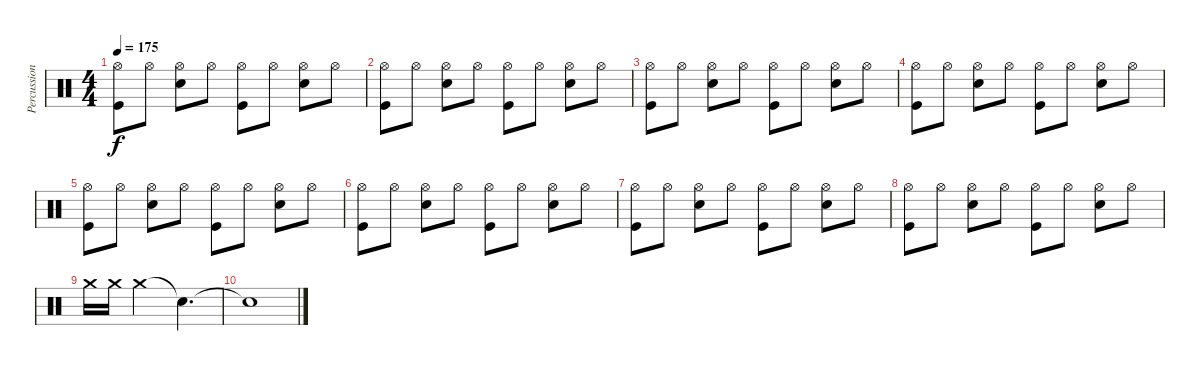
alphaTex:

\track ("Percussion" "Percussion") {instrument percussion}
\staff {score}
\articulation defaults
\ts (4 4)
\tempo 175
\clef neutral
\ks c
("Hi-Hat (open)" "Kick (hit)").8{dy f} "Hi-Hat (open)".8 ("Hi-Hat (open)" "Snare (hit) 2").8 "Hi-Hat (open)".8 ("Hi-Hat (open)" "Kick (hit)").8 "Hi-Hat (open)".8 ("Hi-Hat (open)" "Snare (hit) 2").8 "Hi-Hat (open)".8 |
("Hi-Hat (open)" "Kick (hit)").8 "Hi-Hat (open)".8 ("Hi-Hat (open)" "Snare (hit) 2").8 "Hi-Hat (open)".8 ("Hi-Hat (open)" "Kick (hit)").8 "Hi-Hat (open)".8 ("Hi-Hat (open)" "Snare (hit) 2").8 "Hi-Hat (open)".8 |
("Hi-Hat (open)" "Kick (hit)").8 "Hi-Hat (open)".8 ("Hi-Hat (open)" "Snare (hit) 2").8 "Hi-Hat (open)".8 ("Hi-Hat (open)" "Kick (hit)").8 "Hi-Hat (open)".8 ("Hi-Hat (open)" "Snare (hit) 2").8 "Hi-Hat (open)".8 |
("Hi-Hat (open)" "Kick (hit)").8 "Hi-Hat (open)".8 ("Hi-Hat (open)" "Snare (hit) 2").8 "Hi-Hat (open)".8 ("Hi-Hat (open)" "Kick (hit)").8 "Hi-Hat (open)".8 ("Hi-Hat (open)" "Snare (hit) 2").8 "Hi-Hat (open)".8 |
("Hi-Hat (open)" "Kick (hit)").8 "Hi-Hat (open)".8 ("Hi-Hat (open)" "Snare (hit) 2").8 "Hi-Hat (open)".8 ("Hi-Hat (open)" "Kick (hit)").8 "Hi-Hat (open)".8 ("Hi-Hat (open)" "Snare (hit) 2").8 "Hi-Hat (open)".8 |
("Hi-Hat (open)" "Kick (hit)").8 "Hi-Hat (open)".8 ("Hi-Hat (open)" "Snare (hit) 2").8 "Hi-Hat (open)".8 ("Hi-Hat (open)" "Kick (hit)").8 "Hi-Hat (open)".8 ("Hi-Hat (open)" "Snare (hit) 2").8 "Hi-Hat (open)".8 |
("Hi-Hat (open)" "Kick (hit)").8 "Hi-Hat (open)".8 ("Hi-Hat (open)" "Snare (hit) 2").8 "Hi-Hat (open)".8 ("Hi-Hat (open)" "Kick (hit)").8 "Hi-Hat (open)".8 ("Hi-Hat (open)" "Snare (hit) 2").8 "Hi-Hat (open)".8 |
("Hi-Hat (open)" "Kick (hit)").8 "Hi-Hat (open)".8 ("Hi-Hat (open)" "Snare (hit) 2").8 "Hi-Hat (open)".8 ("Hi-Hat (open)" "Kick (hit)").8 "Hi-Hat (open)".8 ("Hi-Hat (open)" "Snare (hit) 2").8 "Hi-Hat (open)".8 |
"Crash medium (hit)".16 "Crash medium (hit)".16 "Crash medium (hit)".2 "Snare (hit)"{t}.4{d} |
"Snare (hit)"{t}.1
